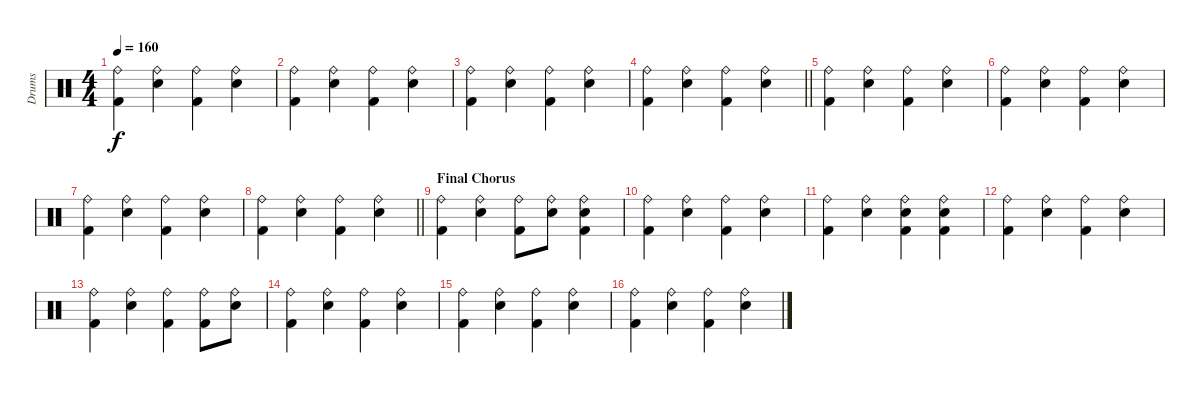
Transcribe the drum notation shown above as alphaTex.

\track ("Drums" "Drums") {instrument percussion}
\staff {score}
\articulation defaults
\ts (4 4)
\tempo 160
\clef neutral
\ks c
("Ride (bell)" "Kick (hit) 2").4{dy f} ("Ride (bell)" "Snare (hit) 2").4 ("Ride (bell)" "Kick (hit) 2").4 ("Ride (bell)" "Snare (hit) 2").4 |
("Ride (bell)" "Kick (hit) 2").4 ("Ride (bell)" "Snare (hit) 2").4 ("Ride (bell)" "Kick (hit) 2").4 ("Ride (bell)" "Snare (hit) 2").4 |
("Ride (bell)" "Kick (hit) 2").4 ("Ride (bell)" "Snare (hit) 2").4 ("Ride (bell)" "Kick (hit) 2").4 ("Ride (bell)" "Snare (hit) 2").4 |
\barLineRight lightlight
("Ride (bell)" "Kick (hit) 2").4 ("Ride (bell)" "Snare (hit) 2").4 ("Ride (bell)" "Kick (hit) 2").4 ("Ride (bell)" "Snare (hit) 2").4 |
("Ride (bell)" "Kick (hit) 2").4 ("Ride (bell)" "Snare (hit) 2").4 ("Ride (bell)" "Kick (hit) 2").4 ("Ride (bell)" "Snare (hit) 2").4 |
("Ride (bell)" "Kick (hit) 2").4 ("Ride (bell)" "Snare (hit) 2").4 ("Ride (bell)" "Kick (hit) 2").4 ("Ride (bell)" "Snare (hit) 2").4 |
("Ride (bell)" "Kick (hit) 2").4 ("Ride (bell)" "Snare (hit) 2").4 ("Ride (bell)" "Kick (hit) 2").4 ("Ride (bell)" "Snare (hit) 2").4 |
\barLineRight lightlight
("Ride (bell)" "Kick (hit) 2").4 ("Ride (bell)" "Snare (hit) 2").4 ("Ride (bell)" "Kick (hit) 2").4 ("Ride (bell)" "Snare (hit) 2").4 |
\section ("" "Final Chorus")
("Ride (bell)" "Kick (hit) 2").4 ("Ride (bell)" "Snare (hit) 2").4 ("Ride (bell)" "Kick (hit) 2").8 ("Ride (bell)" "Snare (hit) 2").8 ("Ride (bell)" "Snare (hit) 2" "Kick (hit) 2").4 |
("Ride (bell)" "Kick (hit) 2").4 ("Ride (bell)" "Snare (hit) 2").4 ("Ride (bell)" "Kick (hit) 2").4 ("Ride (bell)" "Snare (hit) 2").4 |
("Ride (bell)" "Kick (hit) 2").4 ("Ride (bell)" "Snare (hit) 2").4 ("Ride (bell)" "Snare (hit) 2" "Kick (hit) 2").4 ("Ride (bell)" "Snare (hit) 2" "Kick (hit) 2").4 |
("Ride (bell)" "Kick (hit) 2").4 ("Ride (bell)" "Snare (hit) 2").4 ("Ride (bell)" "Kick (hit) 2").4 ("Ride (bell)" "Snare (hit) 2").4 |
("Ride (bell)" "Kick (hit) 2").4 ("Ride (bell)" "Snare (hit) 2").4 ("Ride (bell)" "Kick (hit) 2").4 ("Ride (bell)" "Kick (hit) 2").8 ("Ride (bell)" "Snare (hit) 2").8 |
("Ride (bell)" "Kick (hit) 2").4 ("Ride (bell)" "Snare (hit) 2").4 ("Ride (bell)" "Kick (hit) 2").4 ("Ride (bell)" "Snare (hit) 2").4 |
("Ride (bell)" "Kick (hit) 2").4 ("Ride (bell)" "Snare (hit) 2").4 ("Ride (bell)" "Kick (hit) 2").4 ("Ride (bell)" "Snare (hit) 2").4 |
("Ride (bell)" "Kick (hit) 2").4 ("Ride (bell)" "Snare (hit) 2").4 ("Ride (bell)" "Kick (hit) 2").4 ("Ride (bell)" "Snare (hit) 2").4
